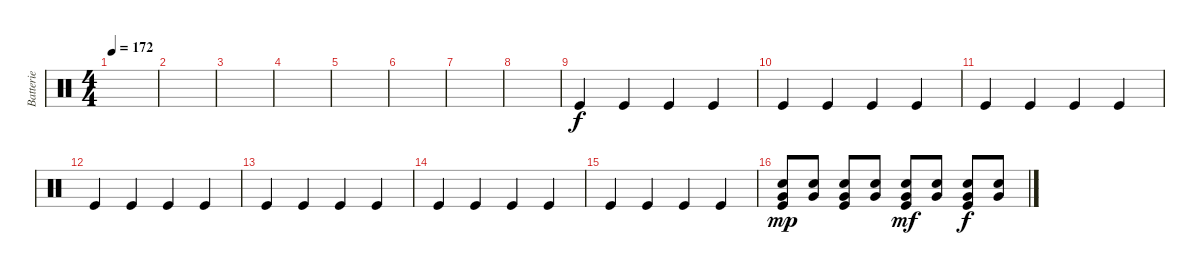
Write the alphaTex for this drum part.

\track ("Batterie" "Batterie") {instrument percussion}
\staff {score}
\articulation defaults
\ts (4 4)
\tempo 172
\clef neutral
\ks c
|
|
|
|
|
|
|
|
"Kick (hit)".4 "Kick (hit)".4 "Kick (hit)".4 "Kick (hit)".4 |
"Kick (hit)".4 "Kick (hit)".4 "Kick (hit)".4 "Kick (hit)".4 |
"Kick (hit)".4 "Kick (hit)".4 "Kick (hit)".4 "Kick (hit)".4 |
"Kick (hit)".4 "Kick (hit)".4 "Kick (hit)".4 "Kick (hit)".4 |
"Kick (hit)".4 "Kick (hit)".4 "Kick (hit)".4 "Kick (hit)".4 |
"Kick (hit)".4 "Kick (hit)".4 "Kick (hit)".4 "Kick (hit)".4 |
"Kick (hit)".4 "Kick (hit)".4 "Kick (hit)".4 "Kick (hit)".4 |
("Snare (hit) 2" "Kick (hit)" "Very Low Tom (hit)").8{dy mp} ("Snare (hit) 2" "Very Low Tom (hit)").8 ("Snare (hit) 2" "Kick (hit)" "Very Low Tom (hit)").8 ("Snare (hit) 2" "Very Low Tom (hit)").8 ("Snare (hit) 2" "Kick (hit)" "Very Low Tom (hit)").8{dy mf} ("Snare (hit) 2" "Very Low Tom (hit)").8 ("Snare (hit) 2" "Kick (hit)" "Very Low Tom (hit)").8{dy f} ("Snare (hit) 2" "Very Low Tom (hit)").8
